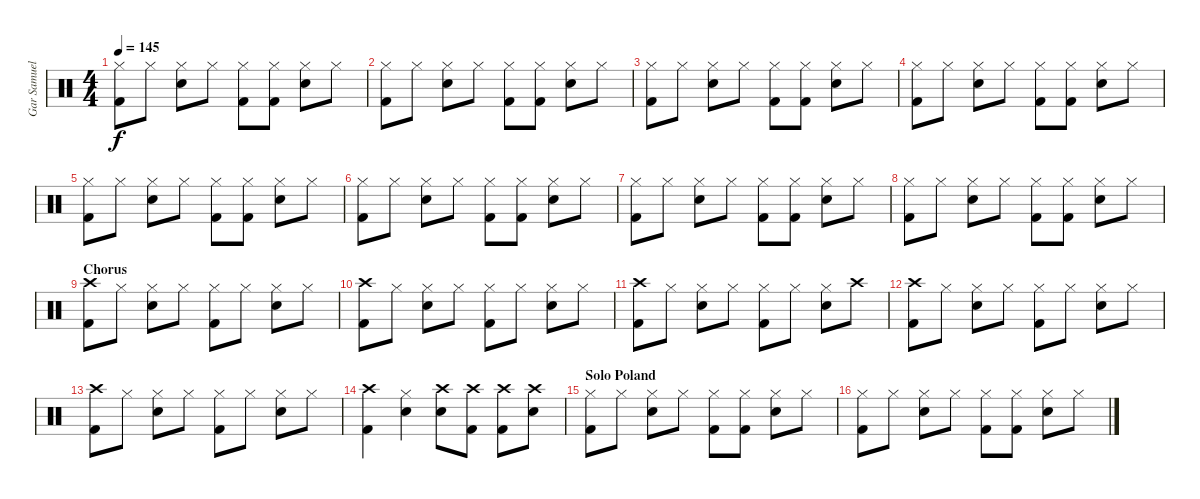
\track ("Gar Samuelson (Drums)" "Gar Samuel") {instrument percussion}
\staff {score}
\articulation defaults
\ts (4 4)
\tempo 145
\clef neutral
\ks c
("Hi-Hat (closed)" "Kick (hit) 2").8{dy f} "Hi-Hat (closed)".8 ("Hi-Hat (closed)" "Electric Snare (hit)").8 "Hi-Hat (closed)".8 ("Hi-Hat (closed)" "Kick (hit) 2").8 ("Hi-Hat (closed)" "Kick (hit) 2").8 ("Hi-Hat (closed)" "Electric Snare (hit)").8 "Hi-Hat (closed)".8 |
("Hi-Hat (closed)" "Kick (hit) 2").8 "Hi-Hat (closed)".8 ("Hi-Hat (closed)" "Electric Snare (hit)").8 "Hi-Hat (closed)".8 ("Hi-Hat (closed)" "Kick (hit) 2").8 ("Hi-Hat (closed)" "Kick (hit) 2").8 ("Hi-Hat (closed)" "Electric Snare (hit)").8 "Hi-Hat (closed)".8 |
("Hi-Hat (closed)" "Kick (hit) 2").8 "Hi-Hat (closed)".8 ("Hi-Hat (closed)" "Electric Snare (hit)").8 "Hi-Hat (closed)".8 ("Hi-Hat (closed)" "Kick (hit) 2").8 ("Hi-Hat (closed)" "Kick (hit) 2").8 ("Hi-Hat (closed)" "Electric Snare (hit)").8 "Hi-Hat (closed)".8 |
("Hi-Hat (closed)" "Kick (hit) 2").8 "Hi-Hat (closed)".8 ("Hi-Hat (closed)" "Electric Snare (hit)").8 "Hi-Hat (closed)".8 ("Hi-Hat (closed)" "Kick (hit) 2").8 ("Hi-Hat (closed)" "Kick (hit) 2").8 ("Hi-Hat (closed)" "Electric Snare (hit)").8 "Hi-Hat (closed)".8 |
("Hi-Hat (closed)" "Kick (hit) 2").8 "Hi-Hat (closed)".8 ("Hi-Hat (closed)" "Electric Snare (hit)").8 "Hi-Hat (closed)".8 ("Hi-Hat (closed)" "Kick (hit) 2").8 ("Hi-Hat (closed)" "Kick (hit) 2").8 ("Hi-Hat (closed)" "Electric Snare (hit)").8 "Hi-Hat (closed)".8 |
("Hi-Hat (closed)" "Kick (hit) 2").8 "Hi-Hat (closed)".8 ("Hi-Hat (closed)" "Electric Snare (hit)").8 "Hi-Hat (closed)".8 ("Hi-Hat (closed)" "Kick (hit) 2").8 ("Hi-Hat (closed)" "Kick (hit) 2").8 ("Hi-Hat (closed)" "Electric Snare (hit)").8 "Hi-Hat (closed)".8 |
("Hi-Hat (closed)" "Kick (hit) 2").8 "Hi-Hat (closed)".8 ("Hi-Hat (closed)" "Electric Snare (hit)").8 "Hi-Hat (closed)".8 ("Hi-Hat (closed)" "Kick (hit) 2").8 ("Hi-Hat (closed)" "Kick (hit) 2").8 ("Hi-Hat (closed)" "Electric Snare (hit)").8 "Hi-Hat (closed)".8 |
("Hi-Hat (closed)" "Kick (hit) 2").8 "Hi-Hat (closed)".8 ("Hi-Hat (closed)" "Electric Snare (hit)").8 "Hi-Hat (closed)".8 ("Hi-Hat (closed)" "Kick (hit) 2").8 ("Hi-Hat (closed)" "Kick (hit) 2").8 ("Hi-Hat (closed)" "Electric Snare (hit)").8 "Hi-Hat (closed)".8 |
\section ("" "Chorus")
("Crash high (hit)" "Kick (hit) 2").8 "Hi-Hat (closed)".8 ("Hi-Hat (closed)" "Electric Snare (hit)").8 "Hi-Hat (closed)".8 ("Hi-Hat (closed)" "Kick (hit) 2").8 "Hi-Hat (closed)".8 ("Hi-Hat (closed)" "Electric Snare (hit)").8 "Hi-Hat (closed)".8 |
("Crash high (hit)" "Kick (hit) 2").8 "Hi-Hat (closed)".8 ("Hi-Hat (closed)" "Electric Snare (hit)").8 "Hi-Hat (closed)".8 ("Hi-Hat (closed)" "Kick (hit) 2").8 "Hi-Hat (closed)".8 ("Hi-Hat (closed)" "Electric Snare (hit)").8 "Hi-Hat (closed)".8 |
("Crash high (hit)" "Kick (hit) 2").8 "Hi-Hat (closed)".8 ("Hi-Hat (closed)" "Electric Snare (hit)").8 "Hi-Hat (closed)".8 ("Hi-Hat (closed)" "Kick (hit) 2").8 "Hi-Hat (closed)".8 ("Hi-Hat (closed)" "Electric Snare (hit)").8 "Crash high (hit)".8 |
("Crash high (hit)" "Kick (hit) 2").8 "Hi-Hat (closed)".8 ("Hi-Hat (closed)" "Electric Snare (hit)").8 "Hi-Hat (closed)".8 ("Hi-Hat (closed)" "Kick (hit) 2").8 "Hi-Hat (closed)".8 ("Hi-Hat (closed)" "Electric Snare (hit)").8 "Hi-Hat (closed)".8 |
("Crash high (hit)" "Kick (hit) 2").8 "Hi-Hat (closed)".8 ("Hi-Hat (closed)" "Electric Snare (hit)").8 "Hi-Hat (closed)".8 ("Hi-Hat (closed)" "Kick (hit) 2").8 "Hi-Hat (closed)".8 ("Hi-Hat (closed)" "Electric Snare (hit)").8 "Hi-Hat (closed)".8 |
("Crash high (hit)" "Kick (hit) 2").4 ("Hi-Hat (closed)" "Electric Snare (hit)").4 ("Crash high (hit)" "Electric Snare (hit)").8 ("Crash high (hit)" "Kick (hit) 2").8 ("Crash high (hit)" "Kick (hit) 2").8 ("Crash high (hit)" "Electric Snare (hit)").8 |
\section ("" "Solo Poland")
("Hi-Hat (closed)" "Kick (hit) 2").8 "Hi-Hat (closed)".8 ("Hi-Hat (closed)" "Electric Snare (hit)").8 "Hi-Hat (closed)".8 ("Hi-Hat (closed)" "Kick (hit) 2").8 ("Hi-Hat (closed)" "Kick (hit) 2").8 ("Hi-Hat (closed)" "Electric Snare (hit)").8 "Hi-Hat (closed)".8 |
("Hi-Hat (closed)" "Kick (hit) 2").8 "Hi-Hat (closed)".8 ("Hi-Hat (closed)" "Electric Snare (hit)").8 "Hi-Hat (closed)".8 ("Hi-Hat (closed)" "Kick (hit) 2").8 ("Hi-Hat (closed)" "Kick (hit) 2").8 ("Hi-Hat (closed)" "Electric Snare (hit)").8 "Hi-Hat (closed)".8
